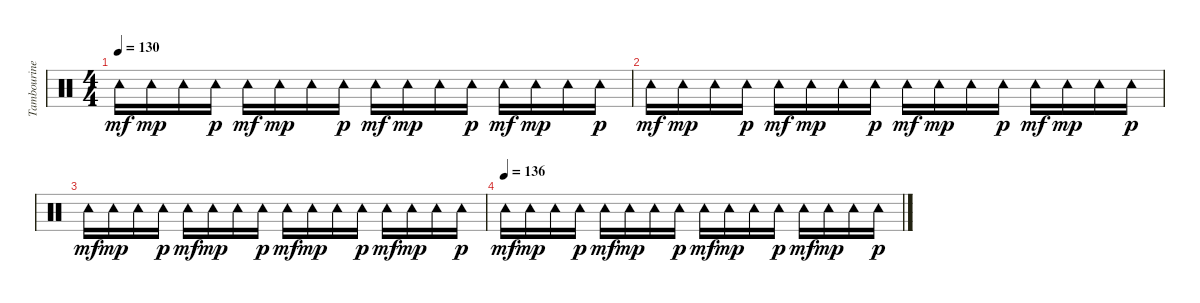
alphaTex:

\track ("Tambourine" "Tambourine") {instrument percussion}
\staff {score}
\articulation defaults
\ts (4 4)
\tempo 130
\clef neutral
\ks c "Tambourine (hit)".16{dy mf} "Tambourine (hit)".16{dy mp} "Tambourine (hit)".16 "Tambourine (hit)".16{dy p} "Tambourine (hit)".16{dy mf} "Tambourine (hit)".16{dy mp} "Tambourine (hit)".16 "Tambourine (hit)".16{dy p} "Tambourine (hit)".16{dy mf} "Tambourine (hit)".16{dy mp} "Tambourine (hit)".16 "Tambourine (hit)".16{dy p} "Tambourine (hit)".16{dy mf} "Tambourine (hit)".16{dy mp} "Tambourine (hit)".16 "Tambourine (hit)".16{dy p}
|
"Tambourine (hit)".16{dy mf} "Tambourine (hit)".16{dy mp} "Tambourine (hit)".16 "Tambourine (hit)".16{dy p} "Tambourine (hit)".16{dy mf} "Tambourine (hit)".16{dy mp} "Tambourine (hit)".16 "Tambourine (hit)".16{dy p} "Tambourine (hit)".16{dy mf} "Tambourine (hit)".16{dy mp} "Tambourine (hit)".16 "Tambourine (hit)".16{dy p} "Tambourine (hit)".16{dy mf} "Tambourine (hit)".16{dy mp} "Tambourine (hit)".16 "Tambourine (hit)".16{dy p} |
"Tambourine (hit)".16{dy mf} "Tambourine (hit)".16{dy mp} "Tambourine (hit)".16 "Tambourine (hit)".16{dy p} "Tambourine (hit)".16{dy mf} "Tambourine (hit)".16{dy mp} "Tambourine (hit)".16 "Tambourine (hit)".16{dy p} "Tambourine (hit)".16{dy mf} "Tambourine (hit)".16{dy mp} "Tambourine (hit)".16 "Tambourine (hit)".16{dy p} "Tambourine (hit)".16{dy mf} "Tambourine (hit)".16{dy mp} "Tambourine (hit)".16 "Tambourine (hit)".16{dy p} |
\tempo (136)
"Tambourine (hit)".16{dy mf} "Tambourine (hit)".16{dy mp} "Tambourine (hit)".16 "Tambourine (hit)".16{dy p} "Tambourine (hit)".16{dy mf} "Tambourine (hit)".16{dy mp} "Tambourine (hit)".16 "Tambourine (hit)".16{dy p} "Tambourine (hit)".16{dy mf} "Tambourine (hit)".16{dy mp} "Tambourine (hit)".16 "Tambourine (hit)".16{dy p} "Tambourine (hit)".16{dy mf} "Tambourine (hit)".16{dy mp} "Tambourine (hit)".16 "Tambourine (hit)".16{dy p}
